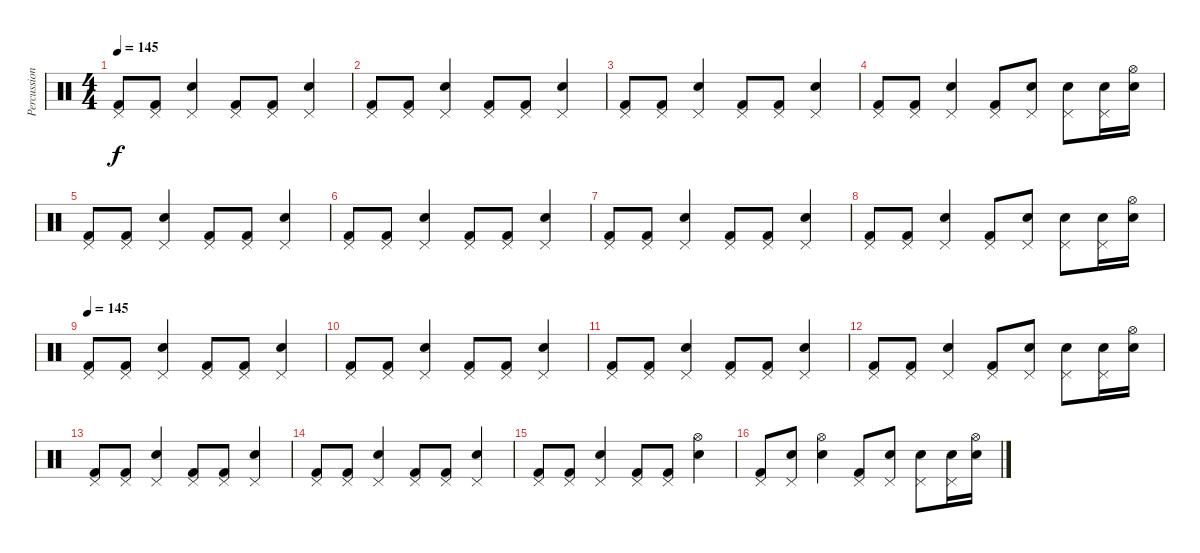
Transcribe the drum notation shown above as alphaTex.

\track ("Percussion" "Percussion") {instrument percussion}
\staff {score}
\articulation defaults
\ts (4 4)
\tempo 145
\clef neutral
\ks c
("Pedal Hi-Hat (hit)" "Kick (hit) 2").8{dy f} ("Pedal Hi-Hat (hit)" "Kick (hit) 2").8 ("Pedal Hi-Hat (hit)" "Snare (hit) 2").4 ("Pedal Hi-Hat (hit)" "Kick (hit) 2").8 ("Pedal Hi-Hat (hit)" "Kick (hit) 2").8 ("Pedal Hi-Hat (hit)" "Snare (hit) 2").4 |
("Pedal Hi-Hat (hit)" "Kick (hit) 2").8 ("Pedal Hi-Hat (hit)" "Kick (hit) 2").8 ("Pedal Hi-Hat (hit)" "Snare (hit) 2").4 ("Pedal Hi-Hat (hit)" "Kick (hit) 2").8 ("Pedal Hi-Hat (hit)" "Kick (hit) 2").8 ("Pedal Hi-Hat (hit)" "Snare (hit) 2").4 |
("Pedal Hi-Hat (hit)" "Kick (hit) 2").8 ("Pedal Hi-Hat (hit)" "Kick (hit) 2").8 ("Pedal Hi-Hat (hit)" "Snare (hit) 2").4 ("Pedal Hi-Hat (hit)" "Kick (hit) 2").8 ("Pedal Hi-Hat (hit)" "Kick (hit) 2").8 ("Pedal Hi-Hat (hit)" "Snare (hit) 2").4 |
("Pedal Hi-Hat (hit)" "Kick (hit) 2").8 ("Pedal Hi-Hat (hit)" "Kick (hit) 2").8 ("Pedal Hi-Hat (hit)" "Snare (hit) 2").4 ("Pedal Hi-Hat (hit)" "Kick (hit) 2").8 ("Pedal Hi-Hat (hit)" "Snare (hit) 2").8 ("Pedal Hi-Hat (hit)" "Snare (hit) 2").8 ("Pedal Hi-Hat (hit)" "Snare (hit) 2").16 ("Hi-Hat (open)" "Snare (hit) 2").16 |
("Pedal Hi-Hat (hit)" "Kick (hit) 2").8 ("Pedal Hi-Hat (hit)" "Kick (hit) 2").8 ("Pedal Hi-Hat (hit)" "Snare (hit) 2").4 ("Pedal Hi-Hat (hit)" "Kick (hit) 2").8 ("Pedal Hi-Hat (hit)" "Kick (hit) 2").8 ("Pedal Hi-Hat (hit)" "Snare (hit) 2").4 |
("Pedal Hi-Hat (hit)" "Kick (hit) 2").8 ("Pedal Hi-Hat (hit)" "Kick (hit) 2").8 ("Pedal Hi-Hat (hit)" "Snare (hit) 2").4 ("Pedal Hi-Hat (hit)" "Kick (hit) 2").8 ("Pedal Hi-Hat (hit)" "Kick (hit) 2").8 ("Pedal Hi-Hat (hit)" "Snare (hit) 2").4 |
("Pedal Hi-Hat (hit)" "Kick (hit) 2").8 ("Pedal Hi-Hat (hit)" "Kick (hit) 2").8 ("Pedal Hi-Hat (hit)" "Snare (hit) 2").4 ("Pedal Hi-Hat (hit)" "Kick (hit) 2").8 ("Pedal Hi-Hat (hit)" "Kick (hit) 2").8 ("Pedal Hi-Hat (hit)" "Snare (hit) 2").4 |
("Pedal Hi-Hat (hit)" "Kick (hit) 2").8 ("Pedal Hi-Hat (hit)" "Kick (hit) 2").8 ("Pedal Hi-Hat (hit)" "Snare (hit) 2").4 ("Pedal Hi-Hat (hit)" "Kick (hit) 2").8 ("Pedal Hi-Hat (hit)" "Snare (hit) 2").8 ("Pedal Hi-Hat (hit)" "Snare (hit) 2").8 ("Pedal Hi-Hat (hit)" "Snare (hit) 2").16 ("Hi-Hat (open)" "Snare (hit) 2").16 |
\tempo 145
("Pedal Hi-Hat (hit)" "Kick (hit) 2").8 ("Pedal Hi-Hat (hit)" "Kick (hit) 2").8 ("Pedal Hi-Hat (hit)" "Snare (hit) 2").4 ("Pedal Hi-Hat (hit)" "Kick (hit) 2").8 ("Pedal Hi-Hat (hit)" "Kick (hit) 2").8 ("Pedal Hi-Hat (hit)" "Snare (hit) 2").4 |
("Pedal Hi-Hat (hit)" "Kick (hit) 2").8 ("Pedal Hi-Hat (hit)" "Kick (hit) 2").8 ("Pedal Hi-Hat (hit)" "Snare (hit) 2").4 ("Pedal Hi-Hat (hit)" "Kick (hit) 2").8 ("Pedal Hi-Hat (hit)" "Kick (hit) 2").8 ("Pedal Hi-Hat (hit)" "Snare (hit) 2").4 |
("Pedal Hi-Hat (hit)" "Kick (hit) 2").8 ("Pedal Hi-Hat (hit)" "Kick (hit) 2").8 ("Pedal Hi-Hat (hit)" "Snare (hit) 2").4 ("Pedal Hi-Hat (hit)" "Kick (hit) 2").8 ("Pedal Hi-Hat (hit)" "Kick (hit) 2").8 ("Pedal Hi-Hat (hit)" "Snare (hit) 2").4 |
("Pedal Hi-Hat (hit)" "Kick (hit) 2").8 ("Pedal Hi-Hat (hit)" "Kick (hit) 2").8 ("Pedal Hi-Hat (hit)" "Snare (hit) 2").4 ("Pedal Hi-Hat (hit)" "Kick (hit) 2").8 ("Pedal Hi-Hat (hit)" "Snare (hit) 2").8 ("Pedal Hi-Hat (hit)" "Snare (hit) 2").8 ("Pedal Hi-Hat (hit)" "Snare (hit) 2").16 ("Hi-Hat (open)" "Snare (hit) 2").16 |
("Pedal Hi-Hat (hit)" "Kick (hit) 2").8 ("Pedal Hi-Hat (hit)" "Kick (hit) 2").8 ("Pedal Hi-Hat (hit)" "Snare (hit) 2").4 ("Pedal Hi-Hat (hit)" "Kick (hit) 2").8 ("Pedal Hi-Hat (hit)" "Kick (hit) 2").8 ("Pedal Hi-Hat (hit)" "Snare (hit) 2").4 |
("Pedal Hi-Hat (hit)" "Kick (hit) 2").8 ("Pedal Hi-Hat (hit)" "Kick (hit) 2").8 ("Pedal Hi-Hat (hit)" "Snare (hit) 2").4 ("Pedal Hi-Hat (hit)" "Kick (hit) 2").8 ("Pedal Hi-Hat (hit)" "Kick (hit) 2").8 ("Pedal Hi-Hat (hit)" "Snare (hit) 2").4 |
("Pedal Hi-Hat (hit)" "Kick (hit) 2").8 ("Pedal Hi-Hat (hit)" "Kick (hit) 2").8 ("Pedal Hi-Hat (hit)" "Snare (hit) 2").4 ("Pedal Hi-Hat (hit)" "Kick (hit) 2").8 ("Pedal Hi-Hat (hit)" "Kick (hit) 2").8 ("Hi-Hat (open)" "Snare (hit) 2").4 |
("Pedal Hi-Hat (hit)" "Kick (hit) 2").8 ("Pedal Hi-Hat (hit)" "Snare (hit) 2").8 ("Hi-Hat (open)" "Snare (hit) 2").4 ("Pedal Hi-Hat (hit)" "Kick (hit) 2").8 ("Pedal Hi-Hat (hit)" "Snare (hit) 2").8 ("Pedal Hi-Hat (hit)" "Snare (hit) 2").8 ("Pedal Hi-Hat (hit)" "Snare (hit) 2").16 ("Hi-Hat (open)" "Snare (hit) 2").16
